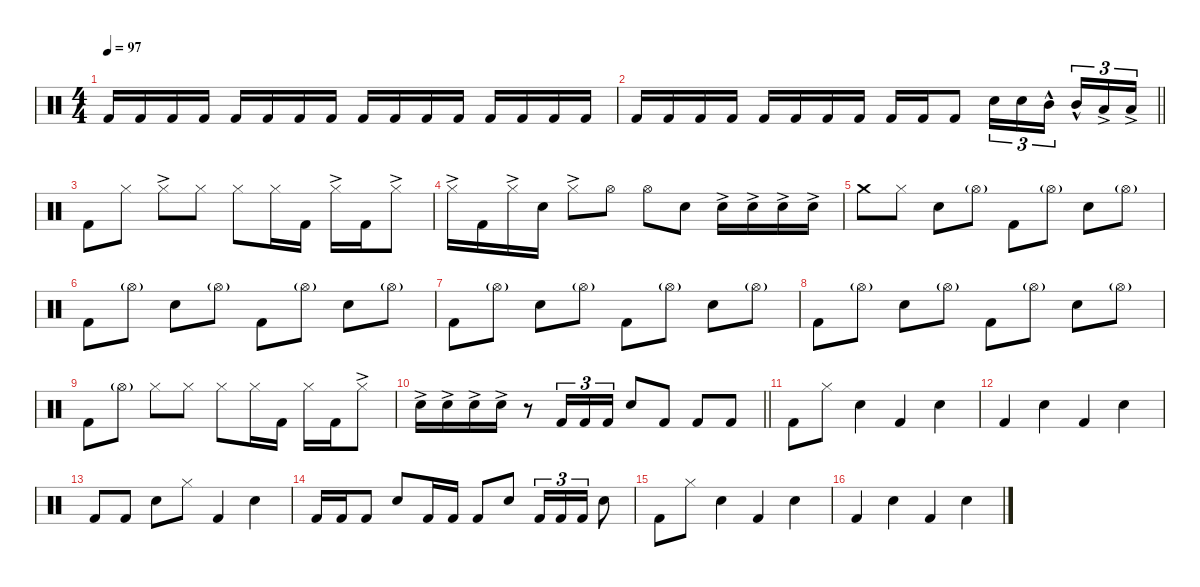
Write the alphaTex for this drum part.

\defaultSystemsLayout 4
\hideDynamics
\bracketExtendMode nobrackets
\singleTrackTrackNamePolicy hidden
\multiTrackTrackNamePolicy hidden
\firstSystemTrackNameMode fullname
\firstSystemTrackNameOrientation horizontal
\otherSystemsTrackNameOrientation horizontal
\track ("Drums [Martin Lopez]" "drm.") {defaultSystemsLayout 4 instrument percussion}
\staff {score}
\articulation defaults
\ts (4 4)
\tempo 97
\clef neutral
\ks c "Kick (hit) 2".16{dy f beam Up} "Kick (hit) 2".16{beam Up} "Kick (hit) 2".16{beam Up} "Kick (hit) 2".16{beam Up} "Kick (hit) 2".16{beam Up} "Kick (hit) 2".16{beam Up} "Kick (hit) 2".16{beam Up} "Kick (hit) 2".16{beam Up} "Kick (hit) 2".16{beam Up} "Kick (hit) 2".16{beam Up} "Kick (hit) 2".16{beam Up} "Kick (hit) 2".16{beam Up} "Kick (hit) 2".16{beam Up} "Kick (hit) 2".16{beam Up} "Kick (hit) 2".16{beam Up} "Kick (hit) 2".16{beam Up}
|
\barLineRight lightlight "Kick (hit) 2".16{beam Up} "Kick (hit) 2".16{beam Up} "Kick (hit) 2".16{beam Up} "Kick (hit) 2".16{beam Up} "Kick (hit) 2".16{beam Up} "Kick (hit) 2".16{beam Up} "Kick (hit) 2".16{beam Up} "Kick (hit) 2".16{beam Up} "Kick (hit) 2".16{beam Up} "Kick (hit) 2".16{beam Up} "Kick (hit) 2".8{beam Up} "Snare (hit) 2".16{tu (3 2) beam Down} "Snare (hit) 2".16{tu (3 2) beam Down} "Mid Tom (hit)"{hac}.16{tu (3 2) dy mp beam Down} "Mid Tom (hit)"{hac}.16{tu (3 2) beam Up} "Low Tom (hit)"{ac}.16{tu (3 2) dy mf beam Up} "Low Tom (hit)"{ac}.16{tu (3 2) beam Up}
|
"Kick (hit) 2".8{dy f beam Down} "Hi-Hat (closed)".8{beam Down} "Hi-Hat (closed)"{ac}.8{dy mf beam Down} "Hi-Hat (closed)".8{dy f beam Down} "Hi-Hat (closed)".8{beam Down} "Hi-Hat (closed)".16{beam Down} "Kick (hit) 2".16{beam Down} "Hi-Hat (closed)"{ac}.16{dy mf beam Down} "Kick (hit) 2".16{dy f beam Down} "Hi-Hat (closed)"{ac}.8{dy mf beam Down} |
"Hi-Hat (closed)"{ac}.16{beam Down} "Kick (hit) 2".16{dy f beam Down} "Hi-Hat (closed)"{ac}.16{dy mf beam Down} "Snare (hit) 2".16{dy f beam Down} "Hi-Hat (closed)"{ac}.8{dy mf beam Down} "Hi-Hat (open)".8{dy f beam Down} "Hi-Hat (open)".8{beam Down} "Snare (hit) 2".8{beam Down} "Snare (hit) 2"{ac}.16{dy mf beam Down} "Snare (hit) 2"{ac}.16{beam Down} "Snare (hit) 2"{ac}.16{beam Down} "Snare (hit) 2"{ac}.16{beam Down} |
"Crash medium (hit)".8{dy f beam Down} "Hi-Hat (closed)".8{beam Down} "Snare (hit) 2".8{beam Down} "Hi-Hat (open)"{g}.8{dy ff beam Down} "Kick (hit) 2".8{dy f beam Down} "Hi-Hat (open)"{g}.8{dy ff beam Down} "Snare (hit) 2".8{dy f beam Down} "Hi-Hat (open)"{g}.8{dy ff beam Down} |
"Kick (hit) 2".8{dy f beam Down} "Hi-Hat (open)"{g}.8{dy ff beam Down} "Snare (hit) 2".8{dy f beam Down} "Hi-Hat (open)"{g}.8{dy ff beam Down} "Kick (hit) 2".8{dy f beam Down} "Hi-Hat (open)"{g}.8{dy ff beam Down} "Snare (hit) 2".8{dy f beam Down} "Hi-Hat (open)"{g}.8{dy ff beam Down} |
"Kick (hit) 2".8{dy f beam Down} "Hi-Hat (open)"{g}.8{dy ff beam Down} "Snare (hit) 2".8{dy f beam Down} "Hi-Hat (open)"{g}.8{dy ff beam Down} "Kick (hit) 2".8{dy f beam Down} "Hi-Hat (open)"{g}.8{dy ff beam Down} "Snare (hit) 2".8{dy f beam Down} "Hi-Hat (open)"{g}.8{dy ff beam Down} |
"Kick (hit) 2".8{dy f beam Down} "Hi-Hat (open)"{g}.8{dy ff beam Down} "Snare (hit) 2".8{dy f beam Down} "Hi-Hat (open)"{g}.8{dy ff beam Down} "Kick (hit) 2".8{dy f beam Down} "Hi-Hat (open)"{g}.8{dy ff beam Down} "Snare (hit) 2".8{dy f beam Down} "Hi-Hat (open)"{g}.8{dy ff beam Down} |
"Kick (hit) 2".8{dy f beam Down} "Hi-Hat (open)"{g}.8{dy ff beam Down} "Hi-Hat (closed)".8{dy f beam Down} "Hi-Hat (closed)".8{beam Down} "Hi-Hat (closed)".8{beam Down} "Hi-Hat (closed)".16{beam Down} "Kick (hit) 2".16{beam Down} "Hi-Hat (closed)".16{beam Down} "Kick (hit) 2".16{beam Down} "Hi-Hat (closed)"{ac}.8{dy mf beam Down} |
\barLineRight lightlight "Snare (hit) 2"{ac}.16{beam Down} "Snare (hit) 2"{ac}.16{beam Down} "Snare (hit) 2"{ac}.16{beam Down} "Snare (hit) 2"{ac}.16{beam Down}
r.8{beam Down} "Kick (hit) 2".16{tu (3 2) dy f beam Up} "Kick (hit) 2".16{tu (3 2) beam Up} "Kick (hit) 2".16{tu (3 2) beam Up} "Snare (hit) 2".8{beam Up} "Kick (hit) 2".8{beam Up} "Kick (hit) 2".8{beam Up} "Kick (hit) 2".8{beam Up} |
"Kick (hit) 2".8{beam Down} "Hi-Hat (closed)".8{beam Down} "Snare (hit) 2".4{beam Down} "Kick (hit) 2".4{beam Up} "Snare (hit) 2".4{beam Down} |
"Kick (hit) 2".4{beam Up} "Snare (hit) 2".4{beam Down} "Kick (hit) 2".4{beam Up} "Snare (hit) 2".4{beam Down} |
"Kick (hit) 2".8{beam Up} "Kick (hit) 2".8{beam Up} "Snare (hit) 2".8{beam Down} "Hi-Hat (closed)".8{beam Down} "Kick (hit) 2".4{beam Up} "Snare (hit) 2".4{beam Down} |
"Kick (hit) 2".16{beam Up} "Kick (hit) 2".16{beam Up} "Kick (hit) 2".8{beam Up} "Snare (hit) 2".8{beam Up} "Kick (hit) 2".16{beam Up} "Kick (hit) 2".16{beam Up} "Kick (hit) 2".8{beam Up} "Snare (hit) 2".8{beam Up} "Kick (hit) 2".16{tu (3 2) beam Up} "Kick (hit) 2".16{tu (3 2) beam Up} "Kick (hit) 2".16{tu (3 2) beam Up} "Snare (hit) 2".8{beam Down} |
"Kick (hit) 2".8{beam Down} "Hi-Hat (closed)".8{beam Down} "Snare (hit) 2".4{beam Down} "Kick (hit) 2".4{beam Up} "Snare (hit) 2".4{beam Down} |
"Kick (hit) 2".4{beam Up} "Snare (hit) 2".4{beam Down} "Kick (hit) 2".4{beam Up} "Snare (hit) 2".4{beam Down}
